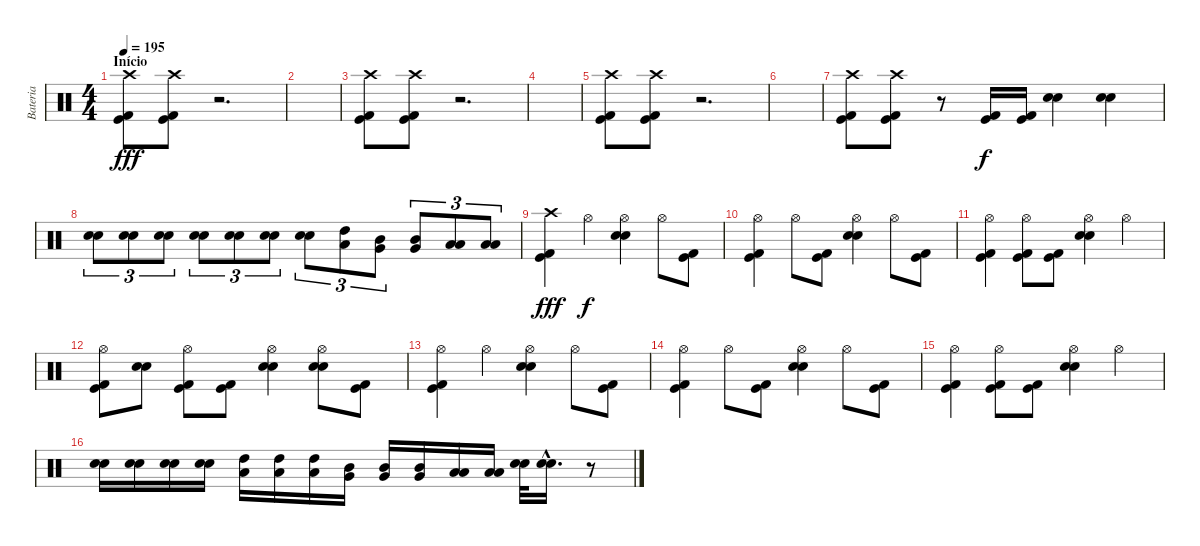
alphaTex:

\track ("Bateria" "Bateria") {instrument percussion}
\staff {score}
\articulation defaults
\ts (4 4)
\section ("" "Início")
\tempo 195
\clef neutral
\ks c
("Crash high (hit)" "Kick (hit) 2" "Kick (hit)").8{dy fff} ("Crash high (hit)" "Kick (hit) 2" "Kick (hit)").8 r.2{d} |
|
("Crash high (hit)" "Kick (hit) 2" "Kick (hit)").8 ("Crash high (hit)" "Kick (hit) 2" "Kick (hit)").8 r.2{d} |
|
("Crash high (hit)" "Kick (hit) 2" "Kick (hit)").8 ("Crash high (hit)" "Kick (hit) 2" "Kick (hit)").8 r.2{d} |
|
("Crash high (hit)" "Kick (hit) 2" "Kick (hit)").8 ("Crash high (hit)" "Kick (hit) 2" "Kick (hit)").8 r.8 ("Kick (hit) 2" "Kick (hit)").16{dy f} ("Kick (hit) 2" "Kick (hit)").16 ("Electric Snare (hit)" "Snare (hit) 2").4 ("Electric Snare (hit)" "Snare (hit) 2").4 |
("Electric Snare (hit)" "Snare (hit) 2").8{tu (3 2)} ("Electric Snare (hit)" "Snare (hit) 2").8{tu (3 2)} ("Electric Snare (hit)" "Snare (hit) 2").8{tu (3 2)} ("Electric Snare (hit)" "Snare (hit) 2").8{tu (3 2)} ("Electric Snare (hit)" "Snare (hit) 2").8{tu (3 2)} ("Electric Snare (hit)" "Snare (hit) 2").8{tu (3 2)} ("Electric Snare (hit)" "Snare (hit) 2").8{tu (3 2)} ("High Tom (hit)" "Low Tom (hit)").8{tu (3 2)} ("Mid Tom (hit)" "Very Low Tom (hit)").8{tu (3 2)} ("Mid Tom (hit)" "Very Low Tom (hit)").8{tu (3 2)} ("Low Tom (hit)" "Low Floor Tom (hit)").8{tu (3 2)} ("Low Tom (hit)" "Low Floor Tom (hit)").8{tu (3 2)} |
("Crash high (hit)" "Kick (hit) 2" "Kick (hit)").4{dy fff} "Hi-Hat (open)".4{dy f} ("Hi-Hat (open)" "Electric Snare (hit)" "Snare (hit) 2").4 "Hi-Hat (open)".8 ("Kick (hit) 2" "Kick (hit)").8 |
("Hi-Hat (open)" "Kick (hit) 2" "Kick (hit)").4 "Hi-Hat (open)".8 ("Kick (hit) 2" "Kick (hit)").8 ("Hi-Hat (open)" "Electric Snare (hit)" "Snare (hit) 2").4 "Hi-Hat (open)".8 ("Kick (hit) 2" "Kick (hit)").8 |
("Hi-Hat (open)" "Kick (hit) 2" "Kick (hit)").4 ("Hi-Hat (open)" "Kick (hit) 2" "Kick (hit)").8 ("Kick (hit) 2" "Kick (hit)").8 ("Hi-Hat (open)" "Electric Snare (hit)" "Snare (hit) 2").4 "Hi-Hat (open)".4 |
("Hi-Hat (open)" "Kick (hit) 2" "Kick (hit)").8 ("Electric Snare (hit)" "Snare (hit) 2").8 ("Hi-Hat (open)" "Kick (hit) 2" "Kick (hit)").8 ("Kick (hit) 2" "Kick (hit)").8 ("Hi-Hat (open)" "Electric Snare (hit)" "Snare (hit) 2").4 ("Hi-Hat (open)" "Electric Snare (hit)" "Snare (hit) 2").8 ("Kick (hit) 2" "Kick (hit)").8 |
("Hi-Hat (open)" "Kick (hit) 2" "Kick (hit)").4 "Hi-Hat (open)".4 ("Hi-Hat (open)" "Electric Snare (hit)" "Snare (hit) 2").4 "Hi-Hat (open)".8 ("Kick (hit) 2" "Kick (hit)").8 |
("Hi-Hat (open)" "Kick (hit) 2" "Kick (hit)").4 "Hi-Hat (open)".8 ("Kick (hit) 2" "Kick (hit)").8 ("Hi-Hat (open)" "Electric Snare (hit)" "Snare (hit) 2").4 "Hi-Hat (open)".8 ("Kick (hit) 2" "Kick (hit)").8 |
("Hi-Hat (open)" "Kick (hit) 2" "Kick (hit)").4 ("Hi-Hat (open)" "Kick (hit) 2" "Kick (hit)").8 ("Kick (hit) 2" "Kick (hit)").8 ("Hi-Hat (open)" "Electric Snare (hit)" "Snare (hit) 2").4 "Hi-Hat (open)".4 |
("Electric Snare (hit)" "Snare (hit) 2").16 ("Electric Snare (hit)" "Snare (hit) 2").16 ("Electric Snare (hit)" "Snare (hit) 2").16 ("Electric Snare (hit)" "Snare (hit) 2").16 ("High Tom (hit)" "Low Tom (hit)").16 ("High Tom (hit)" "Low Tom (hit)").16 ("High Tom (hit)" "Low Tom (hit)").16 ("Mid Tom (hit)" "Very Low Tom (hit)").16 ("Mid Tom (hit)" "Very Low Tom (hit)").16 ("Mid Tom (hit)" "Very Low Tom (hit)").16 ("Low Tom (hit)" "Low Floor Tom (hit)").16 ("Low Tom (hit)" "Low Floor Tom (hit)").16 ("Electric Snare (hit)" "Snare (hit) 2").32 ("Electric Snare (hit)"{hac} "Snare (hit) 2"{hac}).16{d} r.8
